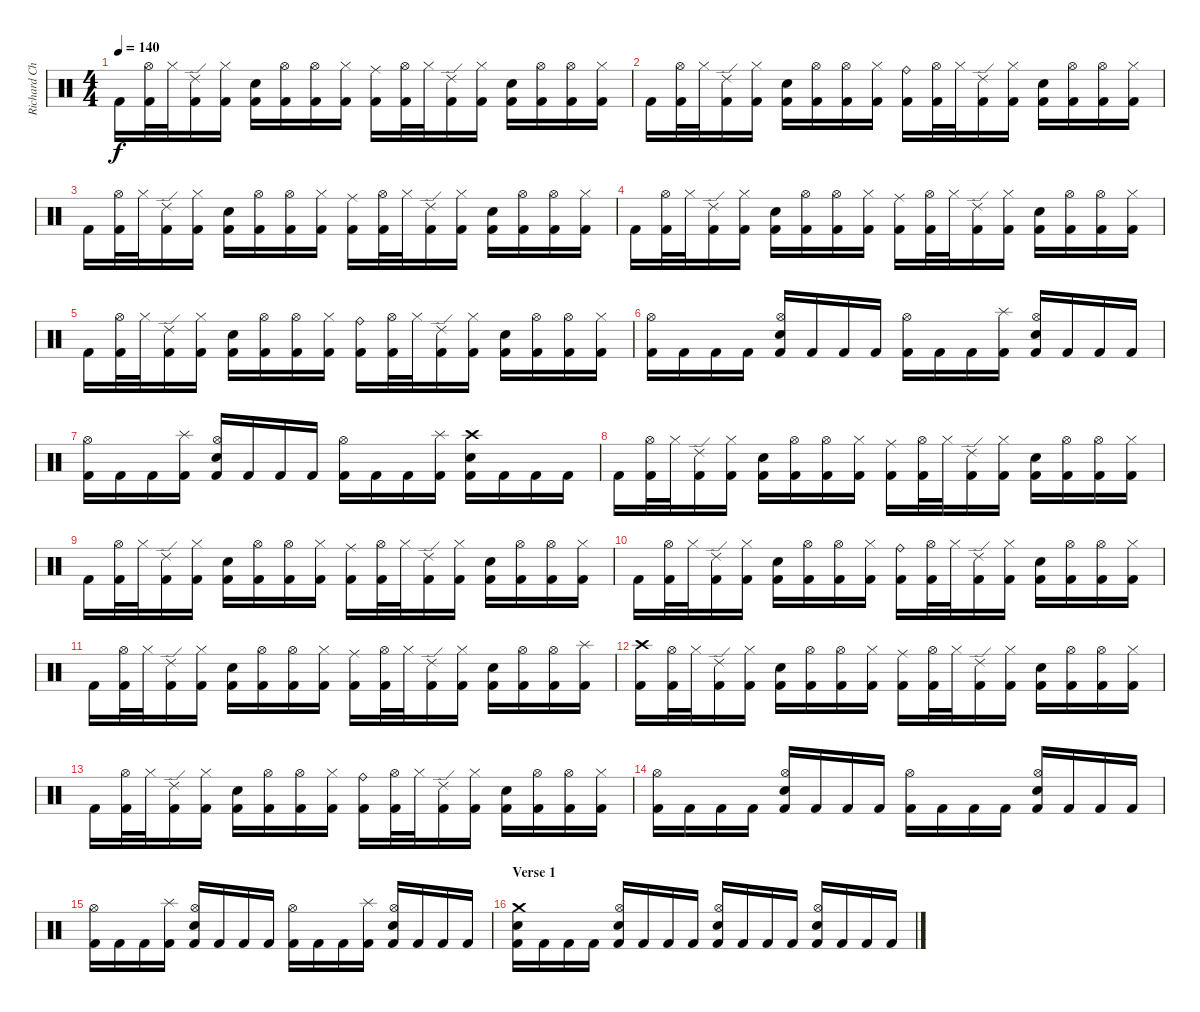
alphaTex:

\track ("Richard Christy" "Richard Ch") {instrument percussion}
\staff {score}
\articulation defaults
\ts (4 4)
\tempo 140
\clef neutral
\ks c "Kick (hit) 2".16{dy f}
("Hi-Hat (open)" "Kick (hit) 2").32 "Hi-Hat (closed)".32 ("Ride (edge) 2" "Kick (hit) 2").16 ("Hi-Hat (closed)" "Kick (hit) 2").16 ("Electric Snare (hit)" "Kick (hit) 2").16 ("Hi-Hat (open)" "Kick (hit) 2").16 ("Hi-Hat (open)" "Kick (hit) 2").16 ("Hi-Hat (closed)" "Kick (hit) 2").16 ("Ride (middle)" "Kick (hit) 2").16 ("Hi-Hat (open)" "Kick (hit) 2").32 "Hi-Hat (closed)".32 ("Ride (edge) 2" "Kick (hit) 2").16 ("Hi-Hat (closed)" "Kick (hit) 2").16 ("Electric Snare (hit)" "Kick (hit) 2").16 ("Hi-Hat (open)" "Kick (hit) 2").16 ("Hi-Hat (open)" "Kick (hit) 2").16 ("Hi-Hat (closed)" "Kick (hit) 2").16 |
"Kick (hit) 2".16 ("Hi-Hat (open)" "Kick (hit) 2").32 "Hi-Hat (closed)".32 ("Ride (edge) 2" "Kick (hit) 2").16 ("Hi-Hat (closed)" "Kick (hit) 2").16 ("Electric Snare (hit)" "Kick (hit) 2").16 ("Hi-Hat (open)" "Kick (hit) 2").16 ("Hi-Hat (open)" "Kick (hit) 2").16 ("Hi-Hat (closed)" "Kick (hit) 2").16 ("Ride (bell)" "Kick (hit) 2").16 ("Hi-Hat (open)" "Kick (hit) 2").32 "Hi-Hat (closed)".32 ("Ride (edge) 2" "Kick (hit) 2").16 ("Hi-Hat (closed)" "Kick (hit) 2").16 ("Electric Snare (hit)" "Kick (hit) 2").16 ("Hi-Hat (open)" "Kick (hit) 2").16 ("Hi-Hat (open)" "Kick (hit) 2").16 ("Hi-Hat (closed)" "Kick (hit) 2").16 |
"Kick (hit) 2".16 ("Hi-Hat (open)" "Kick (hit) 2").32 "Hi-Hat (closed)".32 ("Ride (edge) 2" "Kick (hit) 2").16 ("Hi-Hat (closed)" "Kick (hit) 2").16 ("Electric Snare (hit)" "Kick (hit) 2").16 ("Hi-Hat (open)" "Kick (hit) 2").16 ("Hi-Hat (open)" "Kick (hit) 2").16 ("Hi-Hat (closed)" "Kick (hit) 2").16 ("Ride (middle)" "Kick (hit) 2").16 ("Hi-Hat (open)" "Kick (hit) 2").32 "Hi-Hat (closed)".32 ("Ride (edge) 2" "Kick (hit) 2").16 ("Hi-Hat (closed)" "Kick (hit) 2").16 ("Electric Snare (hit)" "Kick (hit) 2").16 ("Hi-Hat (open)" "Kick (hit) 2").16 ("Hi-Hat (open)" "Kick (hit) 2").16 ("Hi-Hat (closed)" "Kick (hit) 2").16 |
"Kick (hit) 2".16 ("Hi-Hat (open)" "Kick (hit) 2").32 "Hi-Hat (closed)".32 ("Ride (edge) 2" "Kick (hit) 2").16 ("Hi-Hat (closed)" "Kick (hit) 2").16 ("Electric Snare (hit)" "Kick (hit) 2").16 ("Hi-Hat (open)" "Kick (hit) 2").16 ("Hi-Hat (open)" "Kick (hit) 2").16 ("Hi-Hat (closed)" "Kick (hit) 2").16 ("Ride (middle)" "Kick (hit) 2").16 ("Hi-Hat (open)" "Kick (hit) 2").32 "Hi-Hat (closed)".32 ("Ride (edge) 2" "Kick (hit) 2").16 ("Hi-Hat (closed)" "Kick (hit) 2").16 ("Electric Snare (hit)" "Kick (hit) 2").16 ("Hi-Hat (open)" "Kick (hit) 2").16 ("Hi-Hat (open)" "Kick (hit) 2").16 ("Hi-Hat (closed)" "Kick (hit) 2").16 |
"Kick (hit) 2".16 ("Hi-Hat (open)" "Kick (hit) 2").32 "Hi-Hat (closed)".32 ("Ride (edge) 2" "Kick (hit) 2").16 ("Hi-Hat (closed)" "Kick (hit) 2").16 ("Electric Snare (hit)" "Kick (hit) 2").16 ("Hi-Hat (open)" "Kick (hit) 2").16 ("Hi-Hat (open)" "Kick (hit) 2").16 ("Hi-Hat (closed)" "Kick (hit) 2").16 ("Ride (bell)" "Kick (hit) 2").16 ("Hi-Hat (open)" "Kick (hit) 2").32 "Hi-Hat (closed)".32 ("Ride (edge) 2" "Kick (hit) 2").16 ("Hi-Hat (closed)" "Kick (hit) 2").16 ("Electric Snare (hit)" "Kick (hit) 2").16 ("Hi-Hat (open)" "Kick (hit) 2").16 ("Hi-Hat (open)" "Kick (hit) 2").16 ("Hi-Hat (closed)" "Kick (hit) 2").16 |
("Hi-Hat (open)" "Kick (hit) 2").16 "Kick (hit) 2".16 "Kick (hit) 2".16 "Kick (hit) 2".16 ("Hi-Hat (open)" "Electric Snare (hit)" "Kick (hit) 2").16 "Kick (hit) 2".16 "Kick (hit) 2".16 "Kick (hit) 2".16 ("Hi-Hat (open)" "Kick (hit) 2").16 "Kick (hit) 2".16 "Kick (hit) 2".16 ("Splash (hit)" "Kick (hit) 2").16 ("Hi-Hat (open)" "Electric Snare (hit)" "Kick (hit) 2").16 "Kick (hit) 2".16 "Kick (hit) 2".16 "Kick (hit) 2".16 |
("Hi-Hat (open)" "Kick (hit) 2").16 "Kick (hit) 2".16 "Kick (hit) 2".16 ("Splash (hit)" "Kick (hit) 2").16 ("Hi-Hat (open)" "Electric Snare (hit)" "Kick (hit) 2").16 "Kick (hit) 2".16 "Kick (hit) 2".16 "Kick (hit) 2".16 ("Hi-Hat (open)" "Kick (hit) 2").16 "Kick (hit) 2".16 "Kick (hit) 2".16 ("Splash (hit)" "Kick (hit) 2").16 ("Crash high (hit)" "Electric Snare (hit)" "Kick (hit) 2").16 "Kick (hit) 2".16 "Kick (hit) 2".16 "Kick (hit) 2".16 |
"Kick (hit) 2".16 ("Hi-Hat (open)" "Kick (hit) 2").32 "Hi-Hat (closed)".32 ("Ride (edge) 2" "Kick (hit) 2").16 ("Hi-Hat (closed)" "Kick (hit) 2").16 ("Electric Snare (hit)" "Kick (hit) 2").16 ("Hi-Hat (open)" "Kick (hit) 2").16 ("Hi-Hat (open)" "Kick (hit) 2").16 ("Hi-Hat (closed)" "Kick (hit) 2").16 ("Ride (middle)" "Kick (hit) 2").16 ("Hi-Hat (open)" "Kick (hit) 2").32 "Hi-Hat (closed)".32 ("Ride (edge) 2" "Kick (hit) 2").16 ("Hi-Hat (closed)" "Kick (hit) 2").16 ("Electric Snare (hit)" "Kick (hit) 2").16 ("Hi-Hat (open)" "Kick (hit) 2").16 ("Hi-Hat (open)" "Kick (hit) 2").16 ("Hi-Hat (closed)" "Kick (hit) 2").16 |
"Kick (hit) 2".16 ("Hi-Hat (open)" "Kick (hit) 2").32 "Hi-Hat (closed)".32 ("Ride (edge) 2" "Kick (hit) 2").16 ("Hi-Hat (closed)" "Kick (hit) 2").16 ("Electric Snare (hit)" "Kick (hit) 2").16 ("Hi-Hat (open)" "Kick (hit) 2").16 ("Hi-Hat (open)" "Kick (hit) 2").16 ("Hi-Hat (closed)" "Kick (hit) 2").16 ("Ride (middle)" "Kick (hit) 2").16 ("Hi-Hat (open)" "Kick (hit) 2").32 "Hi-Hat (closed)".32 ("Ride (edge) 2" "Kick (hit) 2").16 ("Hi-Hat (closed)" "Kick (hit) 2").16 ("Electric Snare (hit)" "Kick (hit) 2").16 ("Hi-Hat (open)" "Kick (hit) 2").16 ("Hi-Hat (open)" "Kick (hit) 2").16 ("Hi-Hat (closed)" "Kick (hit) 2").16 |
"Kick (hit) 2".16 ("Hi-Hat (open)" "Kick (hit) 2").32 "Hi-Hat (closed)".32 ("Ride (edge) 2" "Kick (hit) 2").16 ("Hi-Hat (closed)" "Kick (hit) 2").16 ("Electric Snare (hit)" "Kick (hit) 2").16 ("Hi-Hat (open)" "Kick (hit) 2").16 ("Hi-Hat (open)" "Kick (hit) 2").16 ("Hi-Hat (closed)" "Kick (hit) 2").16 ("Ride (bell)" "Kick (hit) 2").16 ("Hi-Hat (open)" "Kick (hit) 2").32 "Hi-Hat (closed)".32 ("Ride (edge) 2" "Kick (hit) 2").16 ("Hi-Hat (closed)" "Kick (hit) 2").16 ("Electric Snare (hit)" "Kick (hit) 2").16 ("Hi-Hat (open)" "Kick (hit) 2").16 ("Hi-Hat (open)" "Kick (hit) 2").16 ("Hi-Hat (closed)" "Kick (hit) 2").16 |
"Kick (hit) 2".16 ("Hi-Hat (open)" "Kick (hit) 2").32 "Hi-Hat (closed)".32 ("Ride (edge) 2" "Kick (hit) 2").16 ("Hi-Hat (closed)" "Kick (hit) 2").16 ("Electric Snare (hit)" "Kick (hit) 2").16 ("Hi-Hat (open)" "Kick (hit) 2").16 ("Hi-Hat (open)" "Kick (hit) 2").16 ("Hi-Hat (closed)" "Kick (hit) 2").16 ("Ride (middle)" "Kick (hit) 2").16 ("Hi-Hat (open)" "Kick (hit) 2").32 "Hi-Hat (closed)".32 ("Ride (edge) 2" "Kick (hit) 2").16 ("Hi-Hat (closed)" "Kick (hit) 2").16 ("Electric Snare (hit)" "Kick (hit) 2").16 ("Hi-Hat (open)" "Kick (hit) 2").16 ("Hi-Hat (open)" "Kick (hit) 2").16 ("Splash (hit)" "Kick (hit) 2").16 |
("Crash high (hit)" "Kick (hit) 2").16 ("Hi-Hat (open)" "Kick (hit) 2").32 "Hi-Hat (closed)".32 ("Ride (edge) 2" "Kick (hit) 2").16 ("Hi-Hat (closed)" "Kick (hit) 2").16 ("Electric Snare (hit)" "Kick (hit) 2").16 ("Hi-Hat (open)" "Kick (hit) 2").16 ("Hi-Hat (open)" "Kick (hit) 2").16 ("Hi-Hat (closed)" "Kick (hit) 2").16 ("Ride (middle)" "Kick (hit) 2").16 ("Hi-Hat (open)" "Kick (hit) 2").32 "Hi-Hat (closed)".32 ("Ride (edge) 2" "Kick (hit) 2").16 ("Hi-Hat (closed)" "Kick (hit) 2").16 ("Electric Snare (hit)" "Kick (hit) 2").16 ("Hi-Hat (open)" "Kick (hit) 2").16 ("Hi-Hat (open)" "Kick (hit) 2").16 ("Hi-Hat (closed)" "Kick (hit) 2").16 |
"Kick (hit) 2".16 ("Hi-Hat (open)" "Kick (hit) 2").32 "Hi-Hat (closed)".32 ("Ride (edge) 2" "Kick (hit) 2").16 ("Hi-Hat (closed)" "Kick (hit) 2").16 ("Electric Snare (hit)" "Kick (hit) 2").16 ("Hi-Hat (open)" "Kick (hit) 2").16 ("Hi-Hat (open)" "Kick (hit) 2").16 ("Hi-Hat (closed)" "Kick (hit) 2").16 ("Ride (bell)" "Kick (hit) 2").16 ("Hi-Hat (open)" "Kick (hit) 2").32 "Hi-Hat (closed)".32 ("Ride (edge) 2" "Kick (hit) 2").16 ("Hi-Hat (closed)" "Kick (hit) 2").16 ("Electric Snare (hit)" "Kick (hit) 2").16 ("Hi-Hat (open)" "Kick (hit) 2").16 ("Hi-Hat (open)" "Kick (hit) 2").16 ("Hi-Hat (closed)" "Kick (hit) 2").16 |
("Hi-Hat (open)" "Kick (hit) 2").16 "Kick (hit) 2".16 "Kick (hit) 2".16 "Kick (hit) 2".16 ("Hi-Hat (open)" "Electric Snare (hit)" "Kick (hit) 2").16 "Kick (hit) 2".16 "Kick (hit) 2".16 "Kick (hit) 2".16 ("Hi-Hat (open)" "Kick (hit) 2").16 "Kick (hit) 2".16 "Kick (hit) 2".16 "Kick (hit) 2".16 ("Hi-Hat (open)" "Electric Snare (hit)" "Kick (hit) 2").16 "Kick (hit) 2".16 "Kick (hit) 2".16 "Kick (hit) 2".16 |
("Hi-Hat (open)" "Kick (hit) 2").16 "Kick (hit) 2".16 "Kick (hit) 2".16 ("Splash (hit)" "Kick (hit) 2").16 ("Hi-Hat (open)" "Electric Snare (hit)" "Kick (hit) 2").16 "Kick (hit) 2".16 "Kick (hit) 2".16 "Kick (hit) 2".16 ("Hi-Hat (open)" "Kick (hit) 2").16 "Kick (hit) 2".16 "Kick (hit) 2".16 ("Splash (hit)" "Kick (hit) 2").16 ("Hi-Hat (open)" "Electric Snare (hit)" "Kick (hit) 2").16 "Kick (hit) 2".16 "Kick (hit) 2".16 "Kick (hit) 2".16 |
\section ("" "Verse 1 ")
("Crash medium (hit)" "Electric Snare (hit)" "Kick (hit) 2").16 "Kick (hit) 2".16 "Kick (hit) 2".16 "Kick (hit) 2".16 ("Hi-Hat (open)" "Electric Snare (hit)" "Kick (hit) 2").16 "Kick (hit) 2".16 "Kick (hit) 2".16 "Kick (hit) 2".16 ("Hi-Hat (open)" "Electric Snare (hit)" "Kick (hit) 2").16 "Kick (hit) 2".16 "Kick (hit) 2".16 "Kick (hit) 2".16 ("Hi-Hat (open)" "Electric Snare (hit)" "Kick (hit) 2").16 "Kick (hit) 2".16 "Kick (hit) 2".16 "Kick (hit) 2".16
